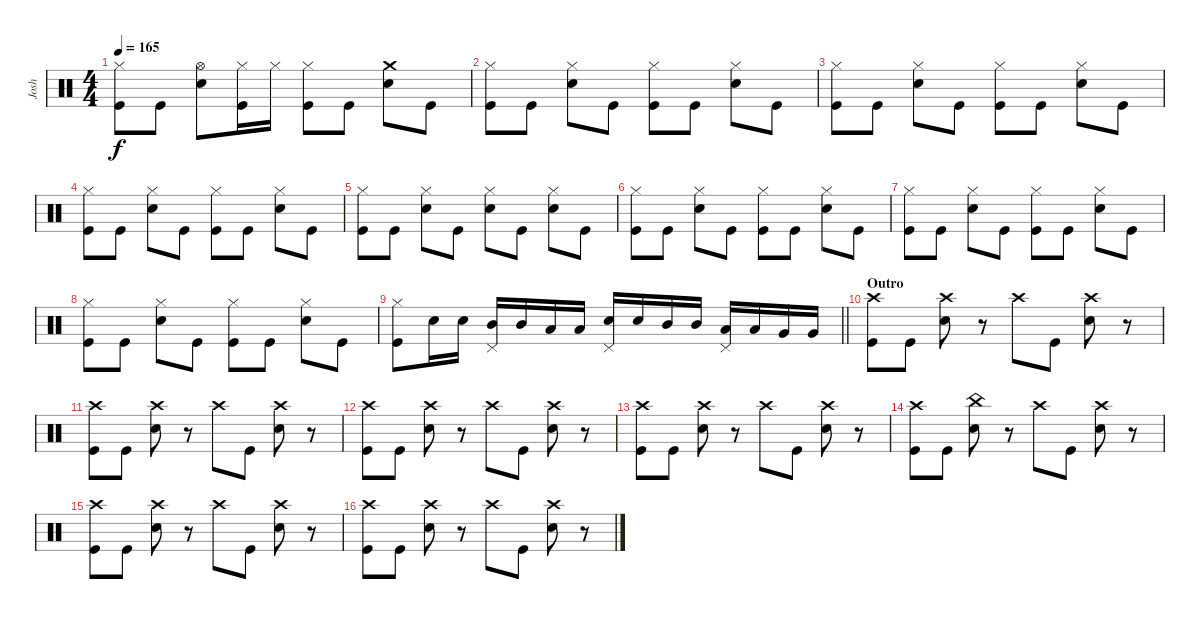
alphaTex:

\track ("Josh" "Josh") {instrument percussion}
\staff {score}
\articulation defaults
\ts (4 4)
\tempo 165
\clef neutral
\ks c
("Hi-Hat (closed)" "Kick (hit)").8{dy f} "Kick (hit)".8 ("Hi-Hat (open)" "Snare (hit) 2").8 ("Hi-Hat (closed)" "Kick (hit)").16 "Hi-Hat (closed)".16 ("Hi-Hat (closed)" "Kick (hit)").8 "Kick (hit)".8 ("Crash medium (hit)" "Snare (hit) 2").8 "Kick (hit)".8 |
("Hi-Hat (closed)" "Kick (hit)").8 "Kick (hit)".8 ("Hi-Hat (closed)" "Snare (hit) 2").8 "Kick (hit)".8 ("Hi-Hat (closed)" "Kick (hit)").8 "Kick (hit)".8 ("Hi-Hat (closed)" "Snare (hit) 2").8 "Kick (hit)".8 |
("Hi-Hat (closed)" "Kick (hit)").8 "Kick (hit)".8 ("Hi-Hat (closed)" "Snare (hit) 2").8 "Kick (hit)".8 ("Hi-Hat (closed)" "Kick (hit)").8 "Kick (hit)".8 ("Hi-Hat (closed)" "Snare (hit) 2").8 "Kick (hit)".8 |
("Hi-Hat (closed)" "Kick (hit)").8 "Kick (hit)".8 ("Hi-Hat (closed)" "Snare (hit) 2").8 "Kick (hit)".8 ("Hi-Hat (closed)" "Kick (hit)").8 "Kick (hit)".8 ("Hi-Hat (closed)" "Snare (hit) 2").8 "Kick (hit)".8 |
("Hi-Hat (closed)" "Kick (hit)").8 "Kick (hit)".8 ("Hi-Hat (closed)" "Snare (hit) 2").8 "Kick (hit)".8 ("Hi-Hat (closed)" "Snare (hit) 2").8 "Kick (hit)".8 ("Hi-Hat (closed)" "Snare (hit) 2").8 "Kick (hit)".8 |
("Hi-Hat (closed)" "Kick (hit)").8 "Kick (hit)".8 ("Hi-Hat (closed)" "Snare (hit) 2").8 "Kick (hit)".8 ("Hi-Hat (closed)" "Kick (hit)").8 "Kick (hit)".8 ("Hi-Hat (closed)" "Snare (hit) 2").8 "Kick (hit)".8 |
("Hi-Hat (closed)" "Kick (hit)").8 "Kick (hit)".8 ("Hi-Hat (closed)" "Snare (hit) 2").8 "Kick (hit)".8 ("Hi-Hat (closed)" "Kick (hit)").8 "Kick (hit)".8 ("Hi-Hat (closed)" "Snare (hit) 2").8 "Kick (hit)".8 |
("Hi-Hat (closed)" "Kick (hit)").8 "Kick (hit)".8 ("Hi-Hat (closed)" "Snare (hit) 2").8 "Kick (hit)".8 ("Hi-Hat (closed)" "Kick (hit)").8 "Kick (hit)".8 ("Hi-Hat (closed)" "Snare (hit) 2").8 "Kick (hit)".8 |
\barLineRight lightlight
("Hi-Hat (closed)" "Kick (hit)").8 "Snare (hit) 2".16 "Snare (hit) 2".16 ("Pedal Hi-Hat (hit)" "Mid Tom (hit)").16 "Mid Tom (hit)".16 "Low Tom (hit)".16 "Low Tom (hit)".16 ("Pedal Hi-Hat (hit)" "Snare (hit) 2").16 "Snare (hit) 2".16 "Mid Tom (hit)".16 "Mid Tom (hit)".16 ("Pedal Hi-Hat (hit)" "Low Tom (hit)").16 "Low Tom (hit)".16 "Very Low Tom (hit)".16 "Very Low Tom (hit)".16 |
\section ("" "Outro")
("Crash high (hit)" "Kick (hit)").8 "Kick (hit)".8 ("Crash high (hit)" "Snare (hit) 2").8 r.8 "Crash high (hit)".8 "Kick (hit)".8 ("Crash high (hit)" "Snare (hit) 2").8 r.8 |
("Crash high (hit)" "Kick (hit)").8 "Kick (hit)".8 ("Crash high (hit)" "Snare (hit) 2").8 r.8 "Crash high (hit)".8 "Kick (hit)".8 ("Crash high (hit)" "Snare (hit) 2").8 r.8 |
("Crash high (hit)" "Kick (hit)").8 "Kick (hit)".8 ("Crash high (hit)" "Snare (hit) 2").8 r.8 "Crash high (hit)".8 "Kick (hit)".8 ("Crash high (hit)" "Snare (hit) 2").8 r.8 |
("Crash high (hit)" "Kick (hit)").8 "Kick (hit)".8 ("Crash high (hit)" "Snare (hit) 2").8 r.8 "Crash high (hit)".8 "Kick (hit)".8 ("Crash high (hit)" "Snare (hit) 2").8 r.8 |
("Crash high (hit)" "Kick (hit)").8 "Kick (hit)".8 ("China (hit)" "Snare (hit) 2").8 r.8 "Crash high (hit)".8 "Kick (hit)".8 ("Crash high (hit)" "Snare (hit) 2").8 r.8 |
("Crash high (hit)" "Kick (hit)").8 "Kick (hit)".8 ("Crash high (hit)" "Snare (hit) 2").8 r.8 "Crash high (hit)".8 "Kick (hit)".8 ("Crash high (hit)" "Snare (hit) 2").8 r.8 |
("Crash high (hit)" "Kick (hit)").8 "Kick (hit)".8 ("Crash high (hit)" "Snare (hit) 2").8 r.8 "Crash high (hit)".8 "Kick (hit)".8 ("Crash high (hit)" "Snare (hit) 2").8 r.8
